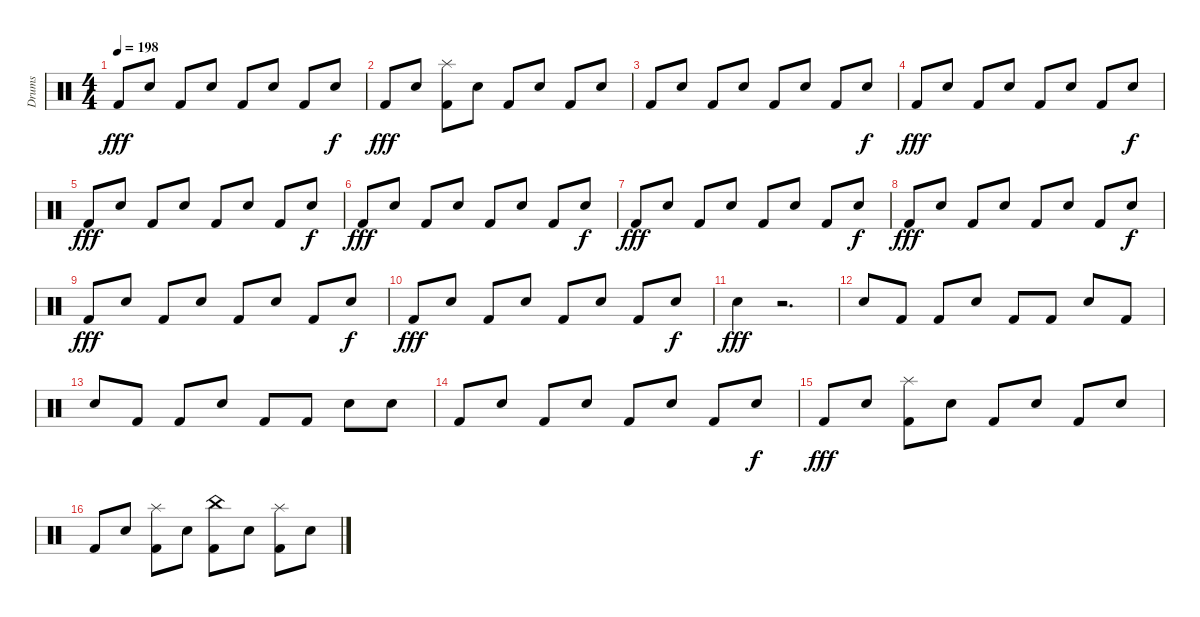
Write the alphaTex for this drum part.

\track ("Drums" "Drums") {instrument percussion}
\staff {score}
\articulation defaults
\ts (4 4)
\tempo 198
\clef neutral
\ks c "Kick (hit) 2".8{dy fff} "Snare (hit) 2".8 "Kick (hit) 2".8 "Snare (hit) 2".8 "Kick (hit) 2".8 "Snare (hit) 2".8 "Kick (hit) 2".8 "Snare (hit) 2".8{dy f}
|
"Kick (hit) 2".8{dy fff} "Snare (hit) 2".8 ("Splash (hit)" "Kick (hit) 2").8 "Snare (hit) 2".8 "Kick (hit) 2".8 "Snare (hit) 2".8 "Kick (hit) 2".8 "Snare (hit) 2".8 |
"Kick (hit) 2".8 "Snare (hit) 2".8 "Kick (hit) 2".8 "Snare (hit) 2".8 "Kick (hit) 2".8 "Snare (hit) 2".8 "Kick (hit) 2".8 "Snare (hit) 2".8{dy f} |
"Kick (hit) 2".8{dy fff} "Snare (hit) 2".8 "Kick (hit) 2".8 "Snare (hit) 2".8 "Kick (hit) 2".8 "Snare (hit) 2".8 "Kick (hit) 2".8 "Snare (hit) 2".8{dy f} |
"Kick (hit) 2".8{dy fff} "Snare (hit) 2".8 "Kick (hit) 2".8 "Snare (hit) 2".8 "Kick (hit) 2".8 "Snare (hit) 2".8 "Kick (hit) 2".8 "Snare (hit) 2".8{dy f} |
"Kick (hit) 2".8{dy fff} "Snare (hit) 2".8 "Kick (hit) 2".8 "Snare (hit) 2".8 "Kick (hit) 2".8 "Snare (hit) 2".8 "Kick (hit) 2".8 "Snare (hit) 2".8{dy f} |
"Kick (hit) 2".8{dy fff} "Snare (hit) 2".8 "Kick (hit) 2".8 "Snare (hit) 2".8 "Kick (hit) 2".8 "Snare (hit) 2".8 "Kick (hit) 2".8 "Snare (hit) 2".8{dy f} |
"Kick (hit) 2".8{dy fff} "Snare (hit) 2".8 "Kick (hit) 2".8 "Snare (hit) 2".8 "Kick (hit) 2".8 "Snare (hit) 2".8 "Kick (hit) 2".8 "Snare (hit) 2".8{dy f} |
"Kick (hit) 2".8{dy fff} "Snare (hit) 2".8 "Kick (hit) 2".8 "Snare (hit) 2".8 "Kick (hit) 2".8 "Snare (hit) 2".8 "Kick (hit) 2".8 "Snare (hit) 2".8{dy f} |
"Kick (hit) 2".8{dy fff} "Snare (hit) 2".8 "Kick (hit) 2".8 "Snare (hit) 2".8 "Kick (hit) 2".8 "Snare (hit) 2".8 "Kick (hit) 2".8 "Snare (hit) 2".8{dy f} |
"Snare (hit) 2".4{dy fff} r.2{d} |
"Snare (hit) 2".8 "Kick (hit) 2".8 "Kick (hit) 2".8 "Snare (hit) 2".8 "Kick (hit) 2".8 "Kick (hit) 2".8 "Snare (hit) 2".8 "Kick (hit) 2".8 |
"Snare (hit) 2".8 "Kick (hit) 2".8 "Kick (hit) 2".8 "Snare (hit) 2".8 "Kick (hit) 2".8 "Kick (hit) 2".8 "Snare (hit) 2".8 "Snare (hit) 2".8 |
"Kick (hit) 2".8 "Snare (hit) 2".8 "Kick (hit) 2".8 "Snare (hit) 2".8 "Kick (hit) 2".8 "Snare (hit) 2".8 "Kick (hit) 2".8 "Snare (hit) 2".8{dy f} |
"Kick (hit) 2".8{dy fff} "Snare (hit) 2".8 ("Splash (hit)" "Kick (hit) 2").8 "Snare (hit) 2".8 "Kick (hit) 2".8 "Snare (hit) 2".8 "Kick (hit) 2".8 "Snare (hit) 2".8 |
"Kick (hit) 2".8 "Snare (hit) 2".8 ("Splash (hit)" "Kick (hit) 2").8 "Snare (hit) 2".8 ("China (hit)" "Kick (hit) 2").8 "Snare (hit) 2".8 ("Splash (hit)" "Kick (hit) 2").8 "Snare (hit) 2".8
